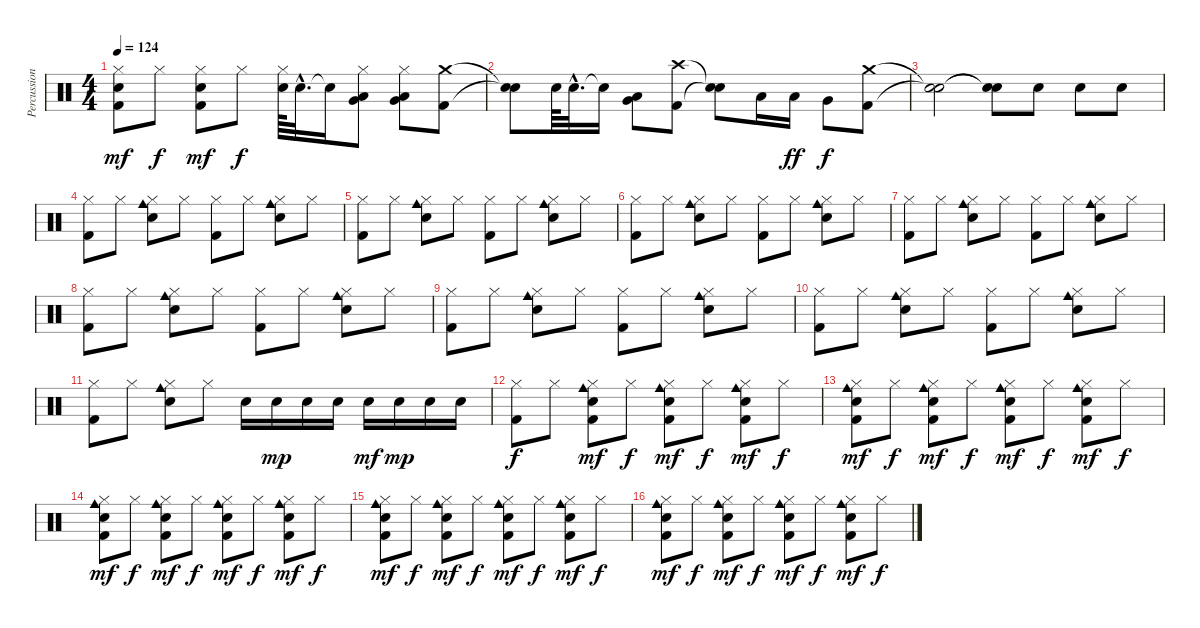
\track ("Percussion" "Percussion") {instrument percussion}
\staff {score}
\articulation defaults
\ts (4 4)
\tempo 124
\clef neutral
\ks c
("Hi-Hat (closed)" "Metronome (bell)" "Kick (hit) 2").8{dy mf} "Hi-Hat (closed)".8{dy f} ("Hi-Hat (closed)" "Metronome (bell)" "Kick (hit) 2").8{dy mf} "Hi-Hat (closed)".8{dy f} ("Hi-Hat (closed)" "Metronome (bell)").64 "Metronome (bell)"{hac}.32{d} "Snare (hit)"{t}.16 ("Hi-Hat (closed)" "Low Tom (hit)" "Very Low Tom (hit)").8 ("Hi-Hat (closed)" "Very Low Tom (hit)" "Low Floor Tom (hit)").8 ("Crash medium (hit)" "Kick (hit) 2").8 |
("Snare (hit)"{t} "Snare (hit)"{t}).8 "Metronome (bell)".64 "Metronome (bell)"{hac}.32{d} "Snare (hit)"{t}.16 ("Low Tom (hit)" "Very Low Tom (hit)").8 ("Crash high (hit)" "Kick (hit) 2").8 ("Snare (hit)"{t} "Snare (hit)"{t}).8 "Low Tom (hit)".16 "Low Tom (hit)".16{dy ff} "Very Low Tom (hit)".8{dy f} ("Crash medium (hit)" "Kick (hit) 2").8 |
("Snare (hit)"{t} "Snare (hit)"{t}).2 ("Snare (hit)"{t} "Snare (hit)"{t}).8 "Metronome (bell)".8 "Metronome (bell)".8 "Metronome (bell)".8 |
("Hi-Hat (closed)" "Kick (hit) 2").8 "Hi-Hat (closed)".8 ("Hi-Hat (closed)" "Cowbell medium (hit)" "Metronome (bell)").8 "Hi-Hat (closed)".8 ("Hi-Hat (closed)" "Kick (hit) 2").8 "Hi-Hat (closed)".8 ("Hi-Hat (closed)" "Cowbell medium (hit)" "Metronome (bell)").8 "Hi-Hat (closed)".8 |
("Hi-Hat (closed)" "Kick (hit) 2").8 "Hi-Hat (closed)".8 ("Hi-Hat (closed)" "Cowbell medium (hit)" "Metronome (bell)").8 "Hi-Hat (closed)".8 ("Hi-Hat (closed)" "Kick (hit) 2").8 "Hi-Hat (closed)".8 ("Hi-Hat (closed)" "Cowbell medium (hit)" "Metronome (bell)").8 "Hi-Hat (closed)".8 |
("Hi-Hat (closed)" "Kick (hit) 2").8 "Hi-Hat (closed)".8 ("Hi-Hat (closed)" "Cowbell medium (hit)" "Metronome (bell)").8 "Hi-Hat (closed)".8 ("Hi-Hat (closed)" "Kick (hit) 2").8 "Hi-Hat (closed)".8 ("Hi-Hat (closed)" "Cowbell medium (hit)" "Metronome (bell)").8 "Hi-Hat (closed)".8 |
("Hi-Hat (closed)" "Kick (hit) 2").8 "Hi-Hat (closed)".8 ("Hi-Hat (closed)" "Cowbell medium (hit)" "Metronome (bell)").8 "Hi-Hat (closed)".8 ("Hi-Hat (closed)" "Kick (hit) 2").8 "Hi-Hat (closed)".8 ("Hi-Hat (closed)" "Cowbell medium (hit)" "Metronome (bell)").8 "Hi-Hat (closed)".8 |
("Hi-Hat (closed)" "Kick (hit) 2").8 "Hi-Hat (closed)".8 ("Hi-Hat (closed)" "Cowbell medium (hit)" "Metronome (bell)").8 "Hi-Hat (closed)".8 ("Hi-Hat (closed)" "Kick (hit) 2").8 "Hi-Hat (closed)".8 ("Hi-Hat (closed)" "Cowbell medium (hit)" "Metronome (bell)").8 "Hi-Hat (closed)".8 |
("Hi-Hat (closed)" "Kick (hit) 2").8 "Hi-Hat (closed)".8 ("Hi-Hat (closed)" "Cowbell medium (hit)" "Metronome (bell)").8 "Hi-Hat (closed)".8 ("Hi-Hat (closed)" "Kick (hit) 2").8 "Hi-Hat (closed)".8 ("Hi-Hat (closed)" "Cowbell medium (hit)" "Metronome (bell)").8 "Hi-Hat (closed)".8 |
("Hi-Hat (closed)" "Kick (hit) 2").8 "Hi-Hat (closed)".8 ("Hi-Hat (closed)" "Cowbell medium (hit)" "Metronome (bell)").8 "Hi-Hat (closed)".8 ("Hi-Hat (closed)" "Kick (hit) 2").8 "Hi-Hat (closed)".8 ("Hi-Hat (closed)" "Cowbell medium (hit)" "Metronome (bell)").8 "Hi-Hat (closed)".8 |
("Hi-Hat (closed)" "Kick (hit) 2").8 "Hi-Hat (closed)".8 ("Hi-Hat (closed)" "Cowbell medium (hit)" "Metronome (bell)").8 "Hi-Hat (closed)".8 "Metronome (bell)".16 "Metronome (bell)".16{dy mp} "Metronome (bell)".16 "Metronome (bell)".16 "Metronome (bell)".16{dy mf} "Metronome (bell)".16{dy mp} "Metronome (bell)".16 "Metronome (bell)".16 |
("Hi-Hat (closed)" "Kick (hit) 2").8{dy f} "Hi-Hat (closed)".8 ("Hi-Hat (closed)" "Cowbell medium (hit)" "Metronome (bell)" "Kick (hit) 2").8{dy mf} "Hi-Hat (closed)".8{dy f} ("Hi-Hat (closed)" "Cowbell medium (hit)" "Metronome (bell)" "Kick (hit) 2").8{dy mf} "Hi-Hat (closed)".8{dy f} ("Hi-Hat (closed)" "Cowbell medium (hit)" "Metronome (bell)" "Kick (hit) 2").8{dy mf} "Hi-Hat (closed)".8{dy f} |
("Hi-Hat (closed)" "Cowbell medium (hit)" "Metronome (bell)" "Kick (hit) 2").8{dy mf} "Hi-Hat (closed)".8{dy f} ("Hi-Hat (closed)" "Cowbell medium (hit)" "Metronome (bell)" "Kick (hit) 2").8{dy mf} "Hi-Hat (closed)".8{dy f} ("Hi-Hat (closed)" "Cowbell medium (hit)" "Metronome (bell)" "Kick (hit) 2").8{dy mf} "Hi-Hat (closed)".8{dy f} ("Hi-Hat (closed)" "Cowbell medium (hit)" "Metronome (bell)" "Kick (hit) 2").8{dy mf} "Hi-Hat (closed)".8{dy f} |
("Hi-Hat (closed)" "Cowbell medium (hit)" "Metronome (bell)" "Kick (hit) 2").8{dy mf} "Hi-Hat (closed)".8{dy f} ("Hi-Hat (closed)" "Cowbell medium (hit)" "Metronome (bell)" "Kick (hit) 2").8{dy mf} "Hi-Hat (closed)".8{dy f} ("Hi-Hat (closed)" "Cowbell medium (hit)" "Metronome (bell)" "Kick (hit) 2").8{dy mf} "Hi-Hat (closed)".8{dy f} ("Hi-Hat (closed)" "Cowbell medium (hit)" "Metronome (bell)" "Kick (hit) 2").8{dy mf} "Hi-Hat (closed)".8{dy f} |
("Hi-Hat (closed)" "Cowbell medium (hit)" "Metronome (bell)" "Kick (hit) 2").8{dy mf} "Hi-Hat (closed)".8{dy f} ("Hi-Hat (closed)" "Cowbell medium (hit)" "Metronome (bell)" "Kick (hit) 2").8{dy mf} "Hi-Hat (closed)".8{dy f} ("Hi-Hat (closed)" "Cowbell medium (hit)" "Metronome (bell)" "Kick (hit) 2").8{dy mf} "Hi-Hat (closed)".8{dy f} ("Hi-Hat (closed)" "Cowbell medium (hit)" "Metronome (bell)" "Kick (hit) 2").8{dy mf} "Hi-Hat (closed)".8{dy f} |
("Hi-Hat (closed)" "Cowbell medium (hit)" "Metronome (bell)" "Kick (hit) 2").8{dy mf} "Hi-Hat (closed)".8{dy f} ("Hi-Hat (closed)" "Cowbell medium (hit)" "Metronome (bell)" "Kick (hit) 2").8{dy mf} "Hi-Hat (closed)".8{dy f} ("Hi-Hat (closed)" "Cowbell medium (hit)" "Metronome (bell)" "Kick (hit) 2").8{dy mf} "Hi-Hat (closed)".8{dy f} ("Hi-Hat (closed)" "Cowbell medium (hit)" "Metronome (bell)" "Kick (hit) 2").8{dy mf} "Hi-Hat (closed)".8{dy f}
